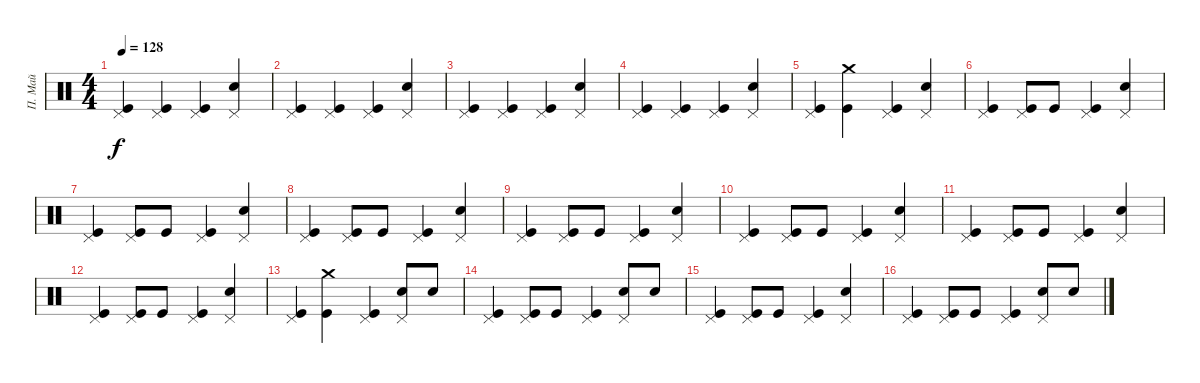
\track ("П. Май" "П. Май") {instrument percussion}
\staff {score}
\articulation defaults
\ts (4 4)
\tempo 128
\clef neutral
\ks c
("Pedal Hi-Hat (hit)" "Kick (hit)").4{dy f} ("Pedal Hi-Hat (hit)" "Kick (hit)").4 ("Pedal Hi-Hat (hit)" "Kick (hit)").4 ("Pedal Hi-Hat (hit)" "Snare (hit) 2").4 |
("Pedal Hi-Hat (hit)" "Kick (hit)").4 ("Pedal Hi-Hat (hit)" "Kick (hit)").4 ("Pedal Hi-Hat (hit)" "Kick (hit)").4 ("Pedal Hi-Hat (hit)" "Snare (hit) 2").4 |
("Pedal Hi-Hat (hit)" "Kick (hit)").4 ("Pedal Hi-Hat (hit)" "Kick (hit)").4 ("Pedal Hi-Hat (hit)" "Kick (hit)").4 ("Pedal Hi-Hat (hit)" "Snare (hit) 2").4 |
("Pedal Hi-Hat (hit)" "Kick (hit)").4 ("Pedal Hi-Hat (hit)" "Kick (hit)").4 ("Pedal Hi-Hat (hit)" "Kick (hit)").4 ("Pedal Hi-Hat (hit)" "Snare (hit) 2").4 |
("Pedal Hi-Hat (hit)" "Kick (hit)").4 ("Crash medium (hit)" "Kick (hit)").4 ("Pedal Hi-Hat (hit)" "Kick (hit)").4 ("Pedal Hi-Hat (hit)" "Snare (hit) 2").4 |
("Pedal Hi-Hat (hit)" "Kick (hit)").4 ("Pedal Hi-Hat (hit)" "Kick (hit)").8 "Kick (hit)".8 ("Pedal Hi-Hat (hit)" "Kick (hit)").4 ("Pedal Hi-Hat (hit)" "Snare (hit) 2").4 |
("Pedal Hi-Hat (hit)" "Kick (hit)").4 ("Pedal Hi-Hat (hit)" "Kick (hit)").8 "Kick (hit)".8 ("Pedal Hi-Hat (hit)" "Kick (hit)").4 ("Pedal Hi-Hat (hit)" "Snare (hit) 2").4 |
("Pedal Hi-Hat (hit)" "Kick (hit)").4 ("Pedal Hi-Hat (hit)" "Kick (hit)").8 "Kick (hit)".8 ("Pedal Hi-Hat (hit)" "Kick (hit)").4 ("Pedal Hi-Hat (hit)" "Snare (hit) 2").4 |
("Pedal Hi-Hat (hit)" "Kick (hit)").4 ("Pedal Hi-Hat (hit)" "Kick (hit)").8 "Kick (hit)".8 ("Pedal Hi-Hat (hit)" "Kick (hit)").4 ("Pedal Hi-Hat (hit)" "Snare (hit) 2").4 |
("Pedal Hi-Hat (hit)" "Kick (hit)").4 ("Pedal Hi-Hat (hit)" "Kick (hit)").8 "Kick (hit)".8 ("Pedal Hi-Hat (hit)" "Kick (hit)").4 ("Pedal Hi-Hat (hit)" "Snare (hit) 2").4 |
("Pedal Hi-Hat (hit)" "Kick (hit)").4 ("Pedal Hi-Hat (hit)" "Kick (hit)").8 "Kick (hit)".8 ("Pedal Hi-Hat (hit)" "Kick (hit)").4 ("Pedal Hi-Hat (hit)" "Snare (hit) 2").4 |
("Pedal Hi-Hat (hit)" "Kick (hit)").4 ("Pedal Hi-Hat (hit)" "Kick (hit)").8 "Kick (hit)".8 ("Pedal Hi-Hat (hit)" "Kick (hit)").4 ("Pedal Hi-Hat (hit)" "Snare (hit) 2").4 |
("Pedal Hi-Hat (hit)" "Kick (hit)").4 ("Crash medium (hit)" "Kick (hit)").4 ("Pedal Hi-Hat (hit)" "Kick (hit)").4 ("Pedal Hi-Hat (hit)" "Snare (hit) 2").8 "Snare (hit) 2".8 |
("Pedal Hi-Hat (hit)" "Kick (hit)").4 ("Pedal Hi-Hat (hit)" "Kick (hit)").8 "Kick (hit)".8 ("Pedal Hi-Hat (hit)" "Kick (hit)").4 ("Pedal Hi-Hat (hit)" "Snare (hit) 2").8 "Snare (hit) 2".8 |
("Pedal Hi-Hat (hit)" "Kick (hit)").4 ("Pedal Hi-Hat (hit)" "Kick (hit)").8 "Kick (hit)".8 ("Pedal Hi-Hat (hit)" "Kick (hit)").4 ("Pedal Hi-Hat (hit)" "Snare (hit) 2").4 |
("Pedal Hi-Hat (hit)" "Kick (hit)").4 ("Pedal Hi-Hat (hit)" "Kick (hit)").8 "Kick (hit)".8 ("Pedal Hi-Hat (hit)" "Kick (hit)").4 ("Pedal Hi-Hat (hit)" "Snare (hit) 2").8 "Snare (hit) 2".8
